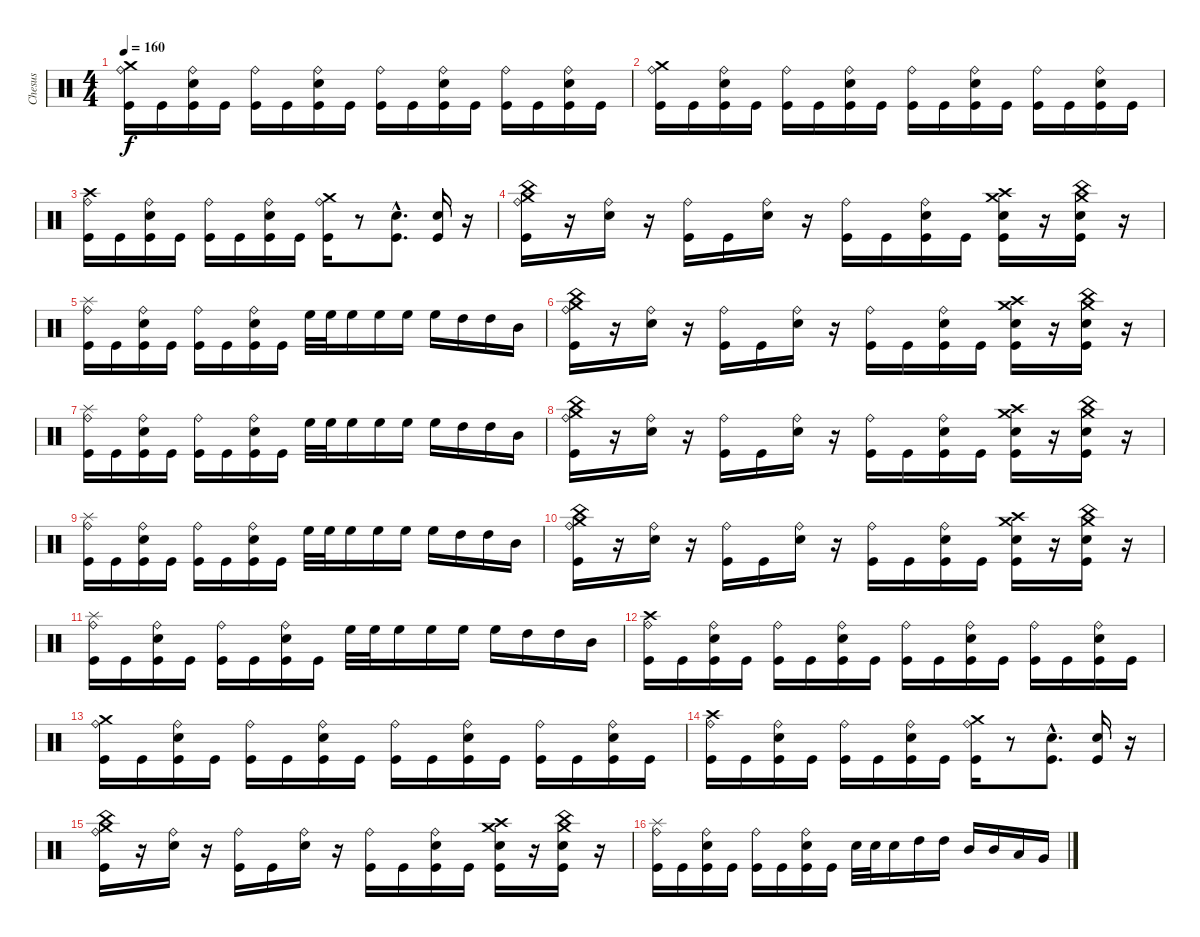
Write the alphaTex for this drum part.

\track ("Chesus" "Chesus") {instrument percussion}
\staff {score}
\articulation defaults
\ts (4 4)
\tempo 160
\clef neutral
\ks c
("Crash medium (hit)" "Ride (bell)" "Kick (hit)").16{dy f} "Kick (hit)".16 ("Ride (bell)" "Snare (hit) 2" "Kick (hit)").16 "Kick (hit)".16 ("Ride (bell)" "Kick (hit)").16 "Kick (hit)".16 ("Ride (bell)" "Snare (hit) 2" "Kick (hit)").16 "Kick (hit)".16 ("Ride (bell)" "Kick (hit)").16 "Kick (hit)".16 ("Ride (bell)" "Snare (hit) 2" "Kick (hit)").16 "Kick (hit)".16 ("Ride (bell)" "Kick (hit)").16 "Kick (hit)".16 ("Ride (bell)" "Snare (hit) 2" "Kick (hit)").16 "Kick (hit)".16 |
("Crash medium (hit)" "Ride (bell)" "Kick (hit)").16 "Kick (hit)".16 ("Ride (bell)" "Snare (hit) 2" "Kick (hit)").16 "Kick (hit)".16 ("Ride (bell)" "Kick (hit)").16 "Kick (hit)".16 ("Ride (bell)" "Snare (hit) 2" "Kick (hit)").16 "Kick (hit)".16 ("Ride (bell)" "Kick (hit)").16 "Kick (hit)".16 ("Ride (bell)" "Snare (hit) 2" "Kick (hit)").16 "Kick (hit)".16 ("Ride (bell)" "Kick (hit)").16 "Kick (hit)".16 ("Ride (bell)" "Snare (hit) 2" "Kick (hit)").16 "Kick (hit)".16 |
("Crash high (hit)" "Ride (bell)" "Kick (hit)").16 "Kick (hit)".16 ("Ride (bell)" "Snare (hit) 2" "Kick (hit)").16 "Kick (hit)".16 ("Ride (bell)" "Kick (hit)").16 "Kick (hit)".16 ("Ride (bell)" "Snare (hit) 2" "Kick (hit)").16 "Kick (hit)".16 ("Crash medium (hit)" "Ride (bell)" "Kick (hit)").16 r.8 ("Snare (hit) 2"{hac} "Kick (hit)"{hac}).8{d} ("Snare (hit) 2" "Kick (hit)").16 r.16 |
("Crash medium (hit)" "China (hit)" "Ride (bell)" "Kick (hit)").16 r.16 ("Ride (bell)" "Snare (hit) 2").16 r.16 ("Ride (bell)" "Kick (hit)").16 "Kick (hit)".16 ("Ride (bell)" "Snare (hit) 2").16 r.16 ("Ride (bell)" "Kick (hit)").16 "Kick (hit)".16 ("Ride (bell)" "Snare (hit) 2" "Kick (hit)").16 "Kick (hit)".16 ("Crash medium (hit)" "Crash high (hit)" "Snare (hit) 2" "Kick (hit)").16 r.16 ("Crash medium (hit)" "China (hit)" "Snare (hit) 2" "Kick (hit)").16 r.16 |
("Splash (hit)" "Ride (bell)" "Kick (hit)").16 "Kick (hit)".16 ("Ride (bell)" "Snare (hit) 2" "Kick (hit)").16 "Kick (hit)".16 ("Ride (bell)" "Kick (hit)").16 "Kick (hit)".16 ("Ride (bell)" "Snare (hit) 2" "Kick (hit)").16 "Kick (hit)".16 "High Floor Tom (hit)".32 "High Floor Tom (hit)".32 "High Floor Tom (hit)".16 "High Floor Tom (hit)".16 "High Floor Tom (hit)".16 "High Floor Tom (hit)".16 "High Tom (hit)".16 "High Tom (hit)".16 "Mid Tom (hit)".16 |
("Crash medium (hit)" "China (hit)" "Ride (bell)" "Kick (hit)").16 r.16 ("Ride (bell)" "Snare (hit) 2").16 r.16 ("Ride (bell)" "Kick (hit)").16 "Kick (hit)".16 ("Ride (bell)" "Snare (hit) 2").16 r.16 ("Ride (bell)" "Kick (hit)").16 "Kick (hit)".16 ("Ride (bell)" "Snare (hit) 2" "Kick (hit)").16 "Kick (hit)".16 ("Crash medium (hit)" "Crash high (hit)" "Snare (hit) 2" "Kick (hit)").16 r.16 ("Crash medium (hit)" "China (hit)" "Snare (hit) 2" "Kick (hit)").16 r.16 |
("Splash (hit)" "Ride (bell)" "Kick (hit)").16 "Kick (hit)".16 ("Ride (bell)" "Snare (hit) 2" "Kick (hit)").16 "Kick (hit)".16 ("Ride (bell)" "Kick (hit)").16 "Kick (hit)".16 ("Ride (bell)" "Snare (hit) 2" "Kick (hit)").16 "Kick (hit)".16 "High Floor Tom (hit)".32 "High Floor Tom (hit)".32 "High Floor Tom (hit)".16 "High Floor Tom (hit)".16 "High Floor Tom (hit)".16 "High Floor Tom (hit)".16 "High Tom (hit)".16 "High Tom (hit)".16 "Mid Tom (hit)".16 |
("Crash medium (hit)" "China (hit)" "Ride (bell)" "Kick (hit)").16 r.16 ("Ride (bell)" "Snare (hit) 2").16 r.16 ("Ride (bell)" "Kick (hit)").16 "Kick (hit)".16 ("Ride (bell)" "Snare (hit) 2").16 r.16 ("Ride (bell)" "Kick (hit)").16 "Kick (hit)".16 ("Ride (bell)" "Snare (hit) 2" "Kick (hit)").16 "Kick (hit)".16 ("Crash medium (hit)" "Crash high (hit)" "Snare (hit) 2" "Kick (hit)").16 r.16 ("Crash medium (hit)" "China (hit)" "Snare (hit) 2" "Kick (hit)").16 r.16 |
("Splash (hit)" "Ride (bell)" "Kick (hit)").16 "Kick (hit)".16 ("Ride (bell)" "Snare (hit) 2" "Kick (hit)").16 "Kick (hit)".16 ("Ride (bell)" "Kick (hit)").16 "Kick (hit)".16 ("Ride (bell)" "Snare (hit) 2" "Kick (hit)").16 "Kick (hit)".16 "High Floor Tom (hit)".32 "High Floor Tom (hit)".32 "High Floor Tom (hit)".16 "High Floor Tom (hit)".16 "High Floor Tom (hit)".16 "High Floor Tom (hit)".16 "High Tom (hit)".16 "High Tom (hit)".16 "Mid Tom (hit)".16 |
("Crash medium (hit)" "China (hit)" "Ride (bell)" "Kick (hit)").16 r.16 ("Ride (bell)" "Snare (hit) 2").16 r.16 ("Ride (bell)" "Kick (hit)").16 "Kick (hit)".16 ("Ride (bell)" "Snare (hit) 2").16 r.16 ("Ride (bell)" "Kick (hit)").16 "Kick (hit)".16 ("Ride (bell)" "Snare (hit) 2" "Kick (hit)").16 "Kick (hit)".16 ("Crash medium (hit)" "Crash high (hit)" "Snare (hit) 2" "Kick (hit)").16 r.16 ("Crash medium (hit)" "China (hit)" "Snare (hit) 2" "Kick (hit)").16 r.16 |
("Splash (hit)" "Ride (bell)" "Kick (hit)").16 "Kick (hit)".16 ("Ride (bell)" "Snare (hit) 2" "Kick (hit)").16 "Kick (hit)".16 ("Ride (bell)" "Kick (hit)").16 "Kick (hit)".16 ("Ride (bell)" "Snare (hit) 2" "Kick (hit)").16 "Kick (hit)".16 "High Floor Tom (hit)".32 "High Floor Tom (hit)".32 "High Floor Tom (hit)".16 "High Floor Tom (hit)".16 "High Floor Tom (hit)".16 "High Floor Tom (hit)".16 "High Tom (hit)".16 "High Tom (hit)".16 "Mid Tom (hit)".16 |
("Crash high (hit)" "Ride (bell)" "Kick (hit)").16 "Kick (hit)".16 ("Ride (bell)" "Snare (hit) 2" "Kick (hit)").16 "Kick (hit)".16 ("Ride (bell)" "Kick (hit)").16 "Kick (hit)".16 ("Ride (bell)" "Snare (hit) 2" "Kick (hit)").16 "Kick (hit)".16 ("Ride (bell)" "Kick (hit)").16 "Kick (hit)".16 ("Ride (bell)" "Snare (hit) 2" "Kick (hit)").16 "Kick (hit)".16 ("Ride (bell)" "Kick (hit)").16 "Kick (hit)".16 ("Ride (bell)" "Snare (hit) 2" "Kick (hit)").16 "Kick (hit)".16 |
("Crash medium (hit)" "Ride (bell)" "Kick (hit)").16 "Kick (hit)".16 ("Ride (bell)" "Snare (hit) 2" "Kick (hit)").16 "Kick (hit)".16 ("Ride (bell)" "Kick (hit)").16 "Kick (hit)".16 ("Ride (bell)" "Snare (hit) 2" "Kick (hit)").16 "Kick (hit)".16 ("Ride (bell)" "Kick (hit)").16 "Kick (hit)".16 ("Ride (bell)" "Snare (hit) 2" "Kick (hit)").16 "Kick (hit)".16 ("Ride (bell)" "Kick (hit)").16 "Kick (hit)".16 ("Ride (bell)" "Snare (hit) 2" "Kick (hit)").16 "Kick (hit)".16 |
("Crash high (hit)" "Ride (bell)" "Kick (hit)").16 "Kick (hit)".16 ("Ride (bell)" "Snare (hit) 2" "Kick (hit)").16 "Kick (hit)".16 ("Ride (bell)" "Kick (hit)").16 "Kick (hit)".16 ("Ride (bell)" "Snare (hit) 2" "Kick (hit)").16 "Kick (hit)".16 ("Crash medium (hit)" "Ride (bell)" "Kick (hit)").16 r.8 ("Snare (hit) 2"{hac} "Kick (hit)"{hac}).8{d} ("Snare (hit) 2" "Kick (hit)").16 r.16 |
("Crash medium (hit)" "China (hit)" "Ride (bell)" "Kick (hit)").16 r.16 ("Ride (bell)" "Snare (hit) 2").16 r.16 ("Ride (bell)" "Kick (hit)").16 "Kick (hit)".16 ("Ride (bell)" "Snare (hit) 2").16 r.16 ("Ride (bell)" "Kick (hit)").16 "Kick (hit)".16 ("Ride (bell)" "Snare (hit) 2" "Kick (hit)").16 "Kick (hit)".16 ("Crash medium (hit)" "Crash high (hit)" "Snare (hit) 2" "Kick (hit)").16 r.16 ("Crash medium (hit)" "China (hit)" "Snare (hit) 2" "Kick (hit)").16 r.16 |
("Splash (hit)" "Ride (bell)" "Kick (hit)").16 "Kick (hit)".16 ("Ride (bell)" "Snare (hit) 2" "Kick (hit)").16 "Kick (hit)".16 ("Ride (bell)" "Kick (hit)").16 "Kick (hit)".16 ("Ride (bell)" "Snare (hit) 2" "Kick (hit)").16 "Kick (hit)".16 "Snare (hit) 2".32 "Snare (hit) 2".32 "Snare (hit) 2".16 "High Tom (hit)".16 "High Tom (hit)".16 "Mid Tom (hit)".16 "Mid Tom (hit)".16 "Low Tom (hit)".16 "Very Low Tom (hit)".16
